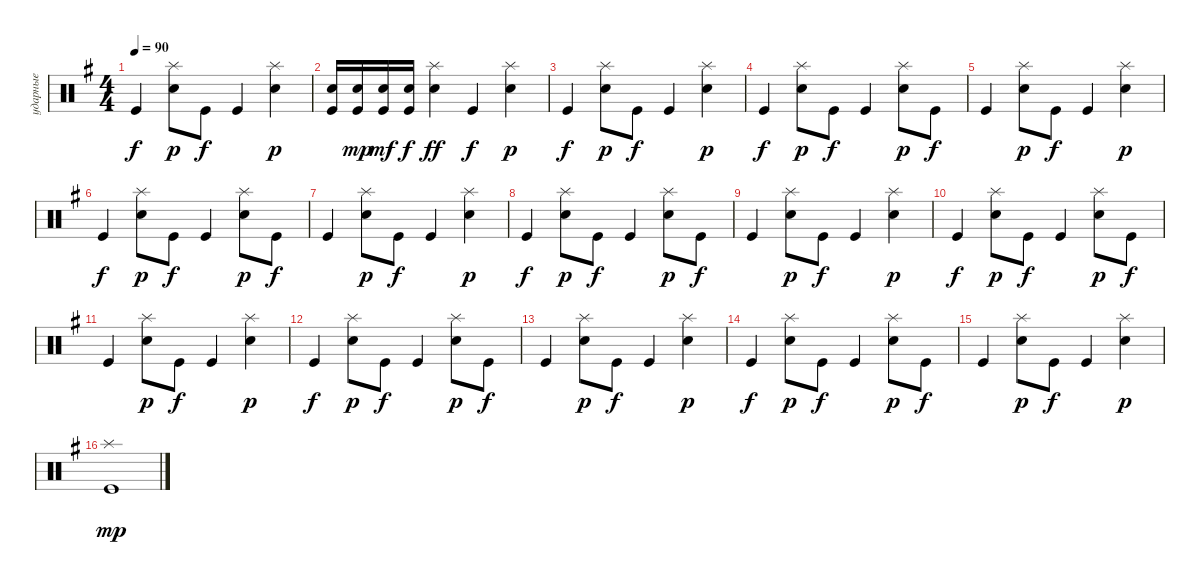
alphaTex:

\track ("ударные" "ударные") {instrument percussion}
\staff {score}
\articulation defaults
\ts (4 4)
\tempo 90
\clef neutral
\ks eminor "Kick (hit)".4{dy f}
("Splash (hit)" "Snare (hit) 2").8{dy p} "Kick (hit)".8{dy f} "Kick (hit)".4 ("Splash (hit)" "Snare (hit) 2").4{dy p} |
("Snare (hit) 2" "Kick (hit)").16 ("Snare (hit) 2" "Kick (hit)").16{dy mp} ("Snare (hit) 2" "Kick (hit)").16{dy mf} ("Snare (hit) 2" "Kick (hit)").16{dy f} ("Splash (hit)" "Snare (hit) 2").4{dy ff} "Kick (hit)".4{dy f} ("Splash (hit)" "Snare (hit) 2").4{dy p} |
"Kick (hit)".4{dy f} ("Splash (hit)" "Snare (hit) 2").8{dy p} "Kick (hit)".8{dy f} "Kick (hit)".4 ("Splash (hit)" "Snare (hit) 2").4{dy p} |
"Kick (hit)".4{dy f} ("Splash (hit)" "Snare (hit) 2").8{dy p} "Kick (hit)".8{dy f} "Kick (hit)".4 ("Splash (hit)" "Snare (hit) 2").8{dy p} "Kick (hit)".8{dy f} |
"Kick (hit)".4 ("Splash (hit)" "Snare (hit) 2").8{dy p} "Kick (hit)".8{dy f} "Kick (hit)".4 ("Splash (hit)" "Snare (hit) 2").4{dy p} |
"Kick (hit)".4{dy f} ("Splash (hit)" "Snare (hit) 2").8{dy p} "Kick (hit)".8{dy f} "Kick (hit)".4 ("Splash (hit)" "Snare (hit) 2").8{dy p} "Kick (hit)".8{dy f} |
"Kick (hit)".4 ("Splash (hit)" "Snare (hit) 2").8{dy p} "Kick (hit)".8{dy f} "Kick (hit)".4 ("Splash (hit)" "Snare (hit) 2").4{dy p} |
"Kick (hit)".4{dy f} ("Splash (hit)" "Snare (hit) 2").8{dy p} "Kick (hit)".8{dy f} "Kick (hit)".4 ("Splash (hit)" "Snare (hit) 2").8{dy p} "Kick (hit)".8{dy f} |
"Kick (hit)".4 ("Splash (hit)" "Snare (hit) 2").8{dy p} "Kick (hit)".8{dy f} "Kick (hit)".4 ("Splash (hit)" "Snare (hit) 2").4{dy p} |
"Kick (hit)".4{dy f} ("Splash (hit)" "Snare (hit) 2").8{dy p} "Kick (hit)".8{dy f} "Kick (hit)".4 ("Splash (hit)" "Snare (hit) 2").8{dy p} "Kick (hit)".8{dy f} |
"Kick (hit)".4 ("Splash (hit)" "Snare (hit) 2").8{dy p} "Kick (hit)".8{dy f} "Kick (hit)".4 ("Splash (hit)" "Snare (hit) 2").4{dy p} |
"Kick (hit)".4{dy f} ("Splash (hit)" "Snare (hit) 2").8{dy p} "Kick (hit)".8{dy f} "Kick (hit)".4 ("Splash (hit)" "Snare (hit) 2").8{dy p} "Kick (hit)".8{dy f} |
"Kick (hit)".4 ("Splash (hit)" "Snare (hit) 2").8{dy p} "Kick (hit)".8{dy f} "Kick (hit)".4 ("Splash (hit)" "Snare (hit) 2").4{dy p} |
"Kick (hit)".4{dy f} ("Splash (hit)" "Snare (hit) 2").8{dy p} "Kick (hit)".8{dy f} "Kick (hit)".4 ("Splash (hit)" "Snare (hit) 2").8{dy p} "Kick (hit)".8{dy f} |
"Kick (hit)".4 ("Splash (hit)" "Snare (hit) 2").8{dy p} "Kick (hit)".8{dy f} "Kick (hit)".4 ("Splash (hit)" "Snare (hit) 2").4{dy p} |
("Splash (hit)" "Kick (hit)").1{dy mp}
